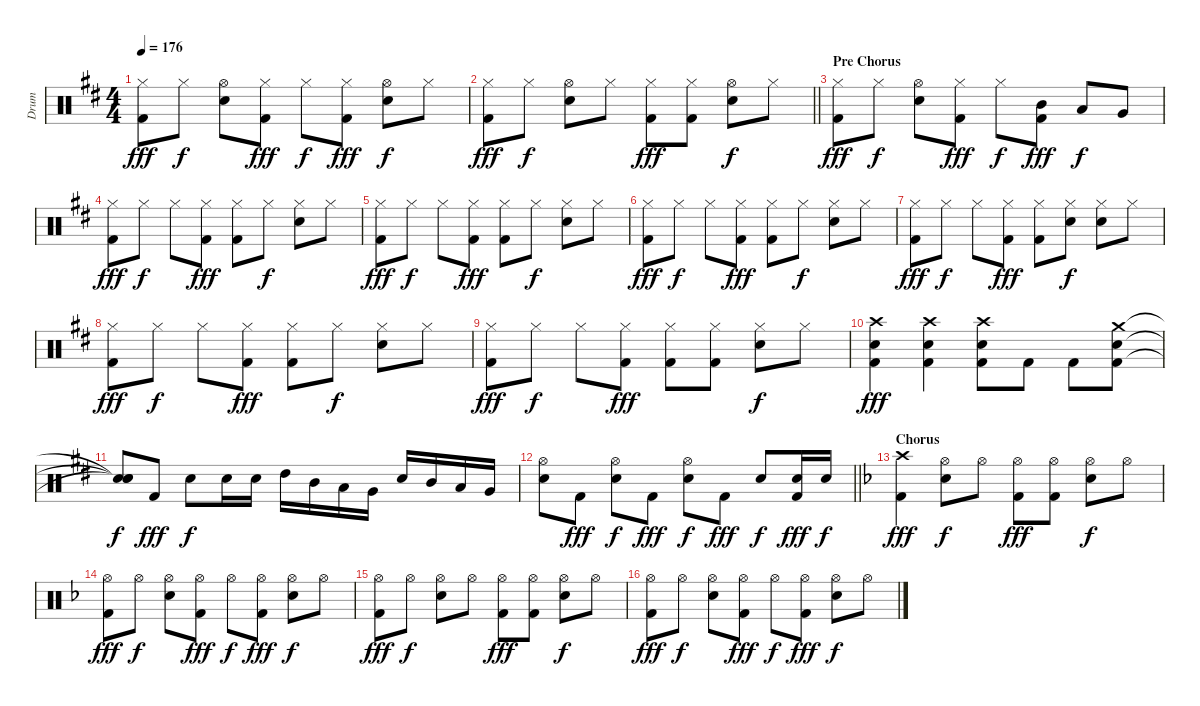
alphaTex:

\track ("Drum" "Drum") {instrument percussion}
\staff {score}
\articulation defaults
\ts (4 4)
\tempo 176
\clef neutral
\ks d
("Hi-Hat (closed)" "Kick (hit) 2").8{dy fff} "Hi-Hat (closed)".8{dy f} ("Hi-Hat (open)" "Snare (hit) 2").8 ("Hi-Hat (closed)" "Kick (hit) 2").8{dy fff} "Hi-Hat (closed)".8{dy f} ("Hi-Hat (closed)" "Kick (hit) 2").8{dy fff} ("Hi-Hat (open)" "Snare (hit) 2").8{dy f} "Hi-Hat (closed)".8 |
\barLineRight lightlight
("Hi-Hat (closed)" "Kick (hit) 2").8{dy fff} "Hi-Hat (closed)".8{dy f} ("Hi-Hat (open)" "Snare (hit) 2").8 "Hi-Hat (closed)".8 ("Hi-Hat (closed)" "Kick (hit) 2").8{dy fff} ("Hi-Hat (closed)" "Kick (hit) 2").8 ("Hi-Hat (open)" "Snare (hit) 2").8{dy f} "Hi-Hat (closed)".8 |
\section ("" "Pre Chorus")
("Hi-Hat (closed)" "Kick (hit) 2").8{dy fff} "Hi-Hat (closed)".8{dy f} ("Hi-Hat (open)" "Snare (hit) 2").8 ("Hi-Hat (closed)" "Kick (hit) 2").8{dy fff} "Hi-Hat (closed)".8{dy f} ("Mid Tom (hit)" "Kick (hit) 2").8{dy fff} "Low Tom (hit)".8{dy f} "Very Low Tom (hit)".8 |
("Hi-Hat (closed)" "Kick (hit) 2").8{dy fff} "Hi-Hat (closed)".8{dy f} "Hi-Hat (closed)".8 ("Hi-Hat (closed)" "Kick (hit) 2").8{dy fff} ("Hi-Hat (closed)" "Kick (hit) 2").8 "Hi-Hat (closed)".8{dy f} ("Hi-Hat (closed)" "Snare (hit) 2").8 "Hi-Hat (closed)".8 |
("Hi-Hat (closed)" "Kick (hit) 2").8{dy fff} "Hi-Hat (closed)".8{dy f} "Hi-Hat (closed)".8 ("Hi-Hat (closed)" "Kick (hit) 2").8{dy fff} ("Hi-Hat (closed)" "Kick (hit) 2").8 "Hi-Hat (closed)".8{dy f} ("Hi-Hat (closed)" "Snare (hit) 2").8 "Hi-Hat (closed)".8 |
("Hi-Hat (closed)" "Kick (hit) 2").8{dy fff} "Hi-Hat (closed)".8{dy f} "Hi-Hat (closed)".8 ("Hi-Hat (closed)" "Kick (hit) 2").8{dy fff} ("Hi-Hat (closed)" "Kick (hit) 2").8 "Hi-Hat (closed)".8{dy f} ("Hi-Hat (closed)" "Snare (hit) 2").8 "Hi-Hat (closed)".8 |
("Hi-Hat (closed)" "Kick (hit) 2").8{dy fff} "Hi-Hat (closed)".8{dy f} "Hi-Hat (closed)".8 ("Hi-Hat (closed)" "Kick (hit) 2").8{dy fff} ("Hi-Hat (closed)" "Kick (hit) 2").8 ("Hi-Hat (closed)" "Snare (hit) 2").8{dy f} ("Hi-Hat (closed)" "Snare (hit) 2").8 "Hi-Hat (closed)".8 |
("Hi-Hat (closed)" "Kick (hit) 2").8{dy fff} "Hi-Hat (closed)".8{dy f} "Hi-Hat (closed)".8 ("Hi-Hat (closed)" "Kick (hit) 2").8{dy fff} ("Hi-Hat (closed)" "Kick (hit) 2").8 "Hi-Hat (closed)".8{dy f} ("Hi-Hat (closed)" "Snare (hit) 2").8 "Hi-Hat (closed)".8 |
("Hi-Hat (closed)" "Kick (hit) 2").8{dy fff} "Hi-Hat (closed)".8{dy f} "Hi-Hat (closed)".8 ("Hi-Hat (closed)" "Kick (hit) 2").8{dy fff} ("Hi-Hat (closed)" "Kick (hit) 2").8 ("Hi-Hat (closed)" "Kick (hit) 2").8 ("Hi-Hat (closed)" "Snare (hit) 2").8{dy f} "Hi-Hat (closed)".8 |
("Crash high (hit)" "Snare (hit) 2" "Kick (hit) 2").4{dy fff} ("Crash high (hit)" "Snare (hit) 2" "Kick (hit) 2").4 ("Crash high (hit)" "Snare (hit) 2" "Kick (hit) 2").8 "Kick (hit) 2".8 "Kick (hit) 2".8 ("Crash medium (hit)" "Snare (hit) 2" "Kick (hit) 2").8 |
("Snare (hit)"{t} "Snare (hit)"{t} "Snare (hit)"{t}).8{dy f} "Kick (hit) 2".8{dy fff} "Snare (hit) 2".8{dy f} "Snare (hit) 2".16 "Snare (hit) 2".16 "High Tom (hit)".16 "Mid Tom (hit)".16 "Low Tom (hit)".16 "Very Low Tom (hit)".16 "Snare (hit) 2".16 "Mid Tom (hit)".16 "Low Tom (hit)".16 "Very Low Tom (hit)".16 |
\barLineRight lightlight
("Hi-Hat (open)" "Snare (hit) 2").8 "Kick (hit) 2".8{dy fff} ("Hi-Hat (open)" "Snare (hit) 2").8{dy f} "Kick (hit) 2".8{dy fff} ("Hi-Hat (open)" "Snare (hit) 2").8{dy f} "Kick (hit) 2".8{dy fff} "Snare (hit) 2".8{dy f} ("Snare (hit) 2" "Kick (hit) 2").16{dy fff} "Snare (hit) 2".16{dy f} |
\section ("" "Chorus")
\ks f
("Crash high (hit)" "Kick (hit) 2").4{dy fff} ("Hi-Hat (open)" "Snare (hit) 2").8{dy f} "Hi-Hat (open)".8 ("Hi-Hat (open)" "Kick (hit) 2").8{dy fff} ("Hi-Hat (open)" "Kick (hit) 2").8 ("Hi-Hat (open)" "Snare (hit) 2").8{dy f} "Hi-Hat (open)".8 |
("Hi-Hat (open)" "Kick (hit) 2").8{dy fff} "Hi-Hat (open)".8{dy f} ("Hi-Hat (open)" "Snare (hit) 2").8 ("Hi-Hat (open)" "Kick (hit) 2").8{dy fff} "Hi-Hat (open)".8{dy f} ("Hi-Hat (open)" "Kick (hit) 2").8{dy fff} ("Hi-Hat (open)" "Snare (hit) 2").8{dy f} "Hi-Hat (open)".8 |
("Hi-Hat (open)" "Kick (hit) 2").8{dy fff} "Hi-Hat (open)".8{dy f} ("Hi-Hat (open)" "Snare (hit) 2").8 "Hi-Hat (open)".8 ("Hi-Hat (open)" "Kick (hit) 2").8{dy fff} ("Hi-Hat (open)" "Kick (hit) 2").8 ("Hi-Hat (open)" "Snare (hit) 2").8{dy f} "Hi-Hat (open)".8 |
("Hi-Hat (open)" "Kick (hit) 2").8{dy fff} "Hi-Hat (open)".8{dy f} ("Hi-Hat (open)" "Snare (hit) 2").8 ("Hi-Hat (open)" "Kick (hit) 2").8{dy fff} "Hi-Hat (open)".8{dy f} ("Hi-Hat (open)" "Kick (hit) 2").8{dy fff} ("Hi-Hat (open)" "Snare (hit) 2").8{dy f} "Hi-Hat (open)".8
